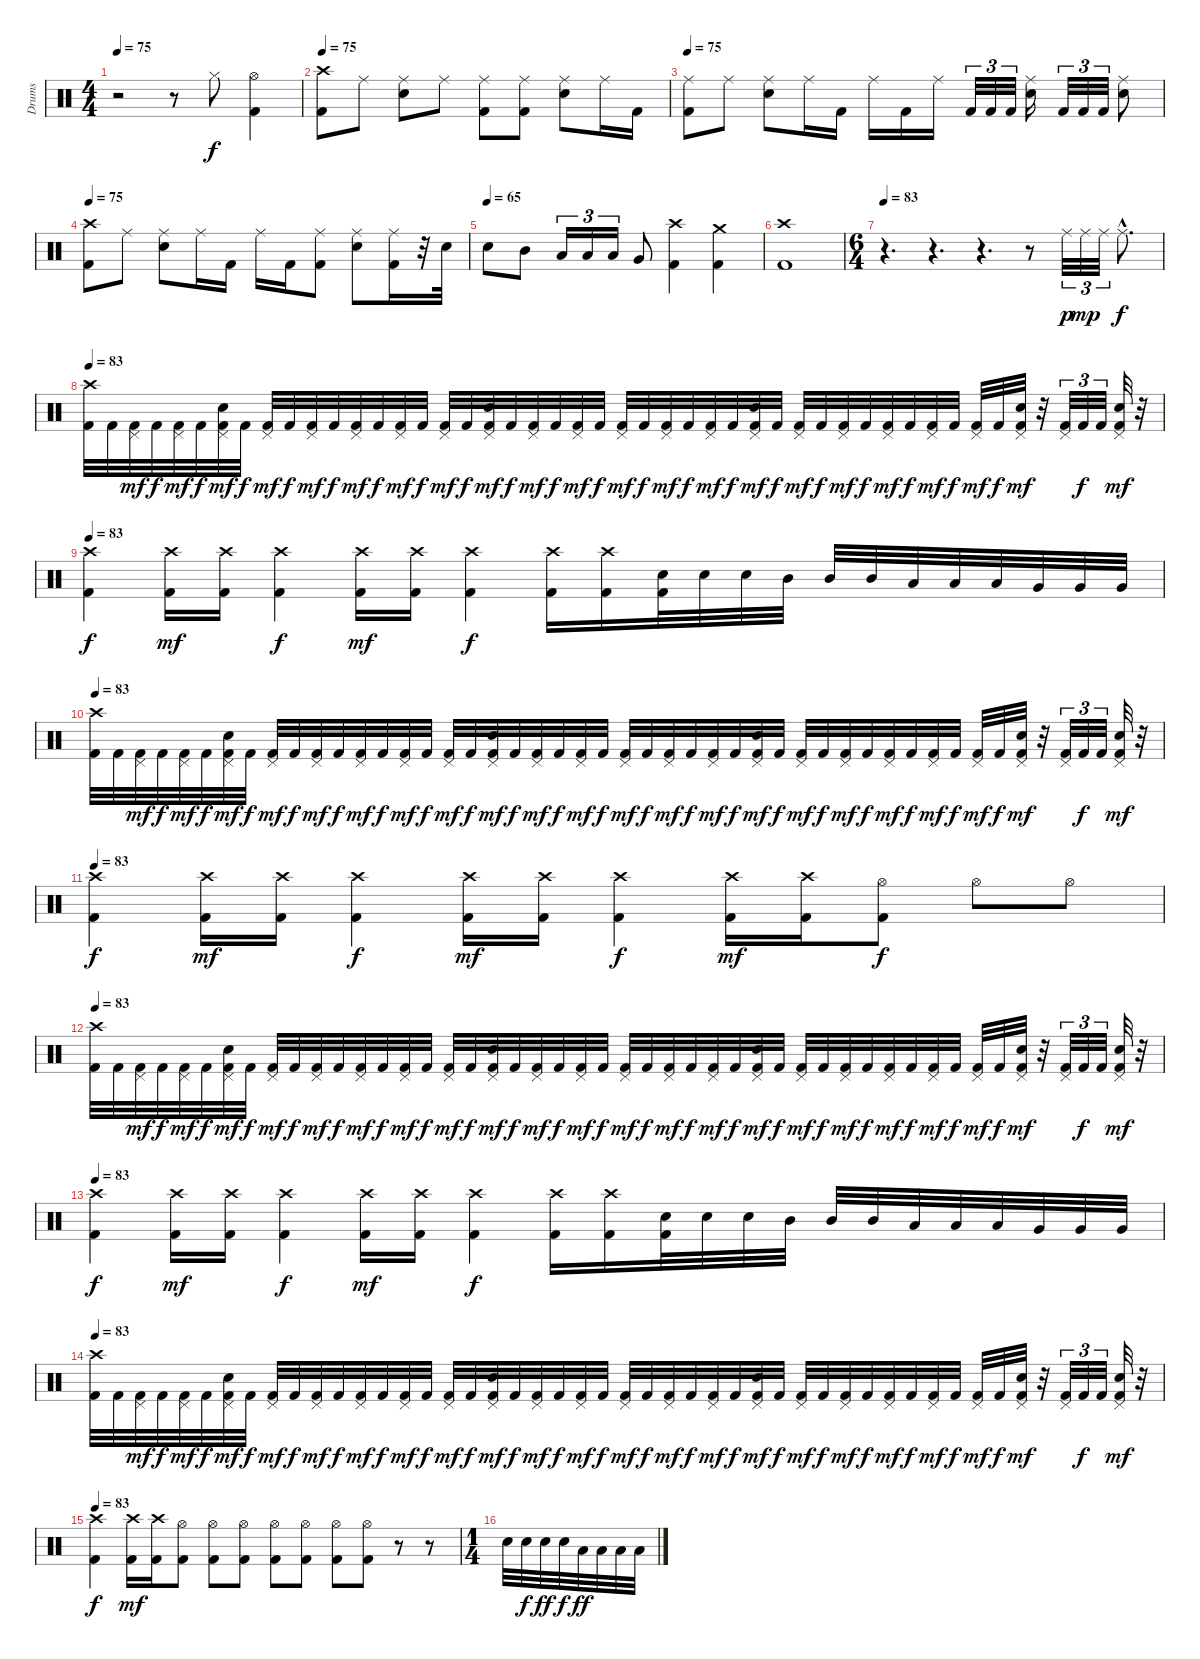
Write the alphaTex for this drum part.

\track ("Drums" "Drums") {instrument percussion}
\staff {score}
\articulation defaults
\ts (4 4)
\tempo 75
\clef neutral
\ks c
r.2{dy f} r.8 "Hi-Hat (closed)".8 ("Hi-Hat (open)" "Kick (hit) 2").4 |
\tempo 75
("Crash high (hit)" "Kick (hit) 2").8 "Ride (middle)".8 ("Ride (middle)" "Electric Snare (hit)").8 "Ride (middle)".8 ("Ride (middle)" "Kick (hit) 2").8 ("Ride (middle)" "Kick (hit) 2").8 ("Ride (middle)" "Electric Snare (hit)").8 "Ride (middle)".16 "Kick (hit) 2".16 |
\tempo 75
("Ride (middle)" "Kick (hit) 2").8 "Ride (middle)".8 ("Ride (middle)" "Electric Snare (hit)").8 "Ride (middle)".16 "Kick (hit) 2".16 "Ride (middle)".16 "Kick (hit) 2".16 "Ride (middle)".16 "Kick (hit) 2".32{tu (3 2)} "Kick (hit) 2".32{tu (3 2)} "Kick (hit) 2".32{tu (3 2)} ("Ride (middle)" "Electric Snare (hit)").16 "Kick (hit) 2".32{tu (3 2)} "Kick (hit) 2".32{tu (3 2)} "Kick (hit) 2".32{tu (3 2)} ("Ride (middle)" "Electric Snare (hit)").8 |
\tempo 75
("Crash high (hit)" "Kick (hit) 2").8 "Ride (middle)".8 ("Ride (middle)" "Electric Snare (hit)").8 "Ride (middle)".16 "Kick (hit) 2".16 "Ride (middle)".16 "Kick (hit) 2".16 ("Ride (middle)" "Kick (hit) 2").8 ("Ride (middle)" "Electric Snare (hit)").8 ("Ride (middle)" "Kick (hit) 2").16 r.32 "Electric Snare (hit)".32 |
\tempo (65)
"Electric Snare (hit)".8 "Mid Tom (hit)".8 "Low Tom (hit)".16{tu (3 2)} "Low Tom (hit)".16{tu (3 2)} "Low Tom (hit)".16{tu (3 2)} "Very Low Tom (hit)".8 ("Crash high (hit)" "Kick (hit) 2").4 ("Crash medium (hit)" "Kick (hit) 2").4 |
("Crash high (hit)" "Kick (hit) 2").1 |
\ts (6 4)
\tempo 83
r.4{d} r.4{d} r.4{d} r.8 "Ride (middle)".32{tu (3 2) dy p} "Ride (middle)".32{tu (3 2) dy mp} "Ride (middle)".32{tu (3 2)} "Ride (middle)"{hac}.8{d dy f} |
\tempo 83
("Crash high (hit)" "Kick (hit) 2").32 "Kick (hit) 2".32 ("Pedal Hi-Hat (hit)" "Kick (hit) 2").32{dy mf} "Kick (hit) 2".32{dy f} ("Pedal Hi-Hat (hit)" "Kick (hit) 2").32{dy mf} "Kick (hit) 2".32{dy f} ("Pedal Hi-Hat (hit)" "Electric Snare (hit)" "Kick (hit) 2").32{dy mf} "Kick (hit) 2".32{dy f} ("Pedal Hi-Hat (hit)" "Kick (hit) 2").32{dy mf} "Kick (hit) 2".32{dy f} ("Pedal Hi-Hat (hit)" "Kick (hit) 2").32{dy mf} "Kick (hit) 2".32{dy f} ("Pedal Hi-Hat (hit)" "Kick (hit) 2").32{dy mf} "Kick (hit) 2".32{dy f} ("Pedal Hi-Hat (hit)" "Kick (hit) 2").32{dy mf} "Kick (hit) 2".32{dy f} ("Pedal Hi-Hat (hit)" "Kick (hit) 2").32{dy mf} "Kick (hit) 2".32{dy f} ("Pedal Hi-Hat (hit)" "Electric Snare (hit)" "Kick (hit) 2").32{dy mf} "Kick (hit) 2".32{dy f} ("Pedal Hi-Hat (hit)" "Kick (hit) 2").32{dy mf} "Kick (hit) 2".32{dy f} ("Pedal Hi-Hat (hit)" "Kick (hit) 2").32{dy mf} "Kick (hit) 2".32{dy f} ("Pedal Hi-Hat (hit)" "Kick (hit) 2").32{dy mf} "Kick (hit) 2".32{dy f} ("Pedal Hi-Hat (hit)" "Kick (hit) 2").32{dy mf} "Kick (hit) 2".32{dy f} ("Pedal Hi-Hat (hit)" "Kick (hit) 2").32{dy mf} "Kick (hit) 2".32{dy f} ("Pedal Hi-Hat (hit)" "Electric Snare (hit)" "Kick (hit) 2").32{dy mf} "Kick (hit) 2".32{dy f} ("Pedal Hi-Hat (hit)" "Kick (hit) 2").32{dy mf} "Kick (hit) 2".32{dy f} ("Pedal Hi-Hat (hit)" "Kick (hit) 2").32{dy mf} "Kick (hit) 2".32{dy f} ("Pedal Hi-Hat (hit)" "Kick (hit) 2").32{dy mf} "Kick (hit) 2".32{dy f} ("Pedal Hi-Hat (hit)" "Kick (hit) 2").32{dy mf} "Kick (hit) 2".32{dy f} ("Pedal Hi-Hat (hit)" "Kick (hit) 2").32{dy mf} "Kick (hit) 2".32{dy f} ("Pedal Hi-Hat (hit)" "Electric Snare (hit)" "Kick (hit) 2").32{dy mf} r.32 ("Pedal Hi-Hat (hit)" "Kick (hit) 2").32{tu (3 2)} "Kick (hit) 2".32{tu (3 2) dy f} "Kick (hit) 2".32{tu (3 2)} ("Pedal Hi-Hat (hit)" "Electric Snare (hit)" "Kick (hit) 2").32{dy mf} r.32 |
\tempo 83
("Crash high (hit)" "Kick (hit) 2").4{dy f} ("Crash high (hit)" "Kick (hit) 2").16{dy mf} ("Crash high (hit)" "Kick (hit) 2").16 ("Crash high (hit)" "Kick (hit) 2").4{dy f} ("Crash high (hit)" "Kick (hit) 2").16{dy mf} ("Crash high (hit)" "Kick (hit) 2").16 ("Crash high (hit)" "Kick (hit) 2").4{dy f} ("Crash high (hit)" "Kick (hit) 2").16 ("Crash high (hit)" "Kick (hit) 2").16 ("Snare (hit) 2" "Kick (hit) 2").32 "Snare (hit) 2".32 "Snare (hit) 2".32 "Mid Tom (hit)".32 "Mid Tom (hit)".32 "Mid Tom (hit)".32 "Low Tom (hit)".32 "Low Tom (hit)".32 "Low Tom (hit)".32 "Very Low Tom (hit)".32 "Very Low Tom (hit)".32 "Very Low Tom (hit)".32 |
\tempo 83
("Crash high (hit)" "Kick (hit) 2").32 "Kick (hit) 2".32 ("Pedal Hi-Hat (hit)" "Kick (hit) 2").32{dy mf} "Kick (hit) 2".32{dy f} ("Pedal Hi-Hat (hit)" "Kick (hit) 2").32{dy mf} "Kick (hit) 2".32{dy f} ("Pedal Hi-Hat (hit)" "Electric Snare (hit)" "Kick (hit) 2").32{dy mf} "Kick (hit) 2".32{dy f} ("Pedal Hi-Hat (hit)" "Kick (hit) 2").32{dy mf} "Kick (hit) 2".32{dy f} ("Pedal Hi-Hat (hit)" "Kick (hit) 2").32{dy mf} "Kick (hit) 2".32{dy f} ("Pedal Hi-Hat (hit)" "Kick (hit) 2").32{dy mf} "Kick (hit) 2".32{dy f} ("Pedal Hi-Hat (hit)" "Kick (hit) 2").32{dy mf} "Kick (hit) 2".32{dy f} ("Pedal Hi-Hat (hit)" "Kick (hit) 2").32{dy mf} "Kick (hit) 2".32{dy f} ("Pedal Hi-Hat (hit)" "Electric Snare (hit)" "Kick (hit) 2").32{dy mf} "Kick (hit) 2".32{dy f} ("Pedal Hi-Hat (hit)" "Kick (hit) 2").32{dy mf} "Kick (hit) 2".32{dy f} ("Pedal Hi-Hat (hit)" "Kick (hit) 2").32{dy mf} "Kick (hit) 2".32{dy f} ("Pedal Hi-Hat (hit)" "Kick (hit) 2").32{dy mf} "Kick (hit) 2".32{dy f} ("Pedal Hi-Hat (hit)" "Kick (hit) 2").32{dy mf} "Kick (hit) 2".32{dy f} ("Pedal Hi-Hat (hit)" "Kick (hit) 2").32{dy mf} "Kick (hit) 2".32{dy f} ("Pedal Hi-Hat (hit)" "Electric Snare (hit)" "Kick (hit) 2").32{dy mf} "Kick (hit) 2".32{dy f} ("Pedal Hi-Hat (hit)" "Kick (hit) 2").32{dy mf} "Kick (hit) 2".32{dy f} ("Pedal Hi-Hat (hit)" "Kick (hit) 2").32{dy mf} "Kick (hit) 2".32{dy f} ("Pedal Hi-Hat (hit)" "Kick (hit) 2").32{dy mf} "Kick (hit) 2".32{dy f} ("Pedal Hi-Hat (hit)" "Kick (hit) 2").32{dy mf} "Kick (hit) 2".32{dy f} ("Pedal Hi-Hat (hit)" "Kick (hit) 2").32{dy mf} "Kick (hit) 2".32{dy f} ("Pedal Hi-Hat (hit)" "Electric Snare (hit)" "Kick (hit) 2").32{dy mf} r.32 ("Pedal Hi-Hat (hit)" "Kick (hit) 2").32{tu (3 2)} "Kick (hit) 2".32{tu (3 2) dy f} "Kick (hit) 2".32{tu (3 2)} ("Pedal Hi-Hat (hit)" "Electric Snare (hit)" "Kick (hit) 2").32{dy mf} r.32 |
\tempo 83
("Crash high (hit)" "Kick (hit) 2").4{dy f} ("Crash high (hit)" "Kick (hit) 2").16{dy mf} ("Crash high (hit)" "Kick (hit) 2").16 ("Crash high (hit)" "Kick (hit) 2").4{dy f} ("Crash high (hit)" "Kick (hit) 2").16{dy mf} ("Crash high (hit)" "Kick (hit) 2").16 ("Crash high (hit)" "Kick (hit) 2").4{dy f} ("Crash high (hit)" "Kick (hit) 2").16{dy mf} ("Crash high (hit)" "Kick (hit) 2").16 ("Hi-Hat (open)" "Kick (hit) 2").8{dy f} "Hi-Hat (open)".8 "Hi-Hat (open)".8 |
\tempo 83
("Crash high (hit)" "Kick (hit) 2").32 "Kick (hit) 2".32 ("Pedal Hi-Hat (hit)" "Kick (hit) 2").32{dy mf} "Kick (hit) 2".32{dy f} ("Pedal Hi-Hat (hit)" "Kick (hit) 2").32{dy mf} "Kick (hit) 2".32{dy f} ("Pedal Hi-Hat (hit)" "Electric Snare (hit)" "Kick (hit) 2").32{dy mf} "Kick (hit) 2".32{dy f} ("Pedal Hi-Hat (hit)" "Kick (hit) 2").32{dy mf} "Kick (hit) 2".32{dy f} ("Pedal Hi-Hat (hit)" "Kick (hit) 2").32{dy mf} "Kick (hit) 2".32{dy f} ("Pedal Hi-Hat (hit)" "Kick (hit) 2").32{dy mf} "Kick (hit) 2".32{dy f} ("Pedal Hi-Hat (hit)" "Kick (hit) 2").32{dy mf} "Kick (hit) 2".32{dy f} ("Pedal Hi-Hat (hit)" "Kick (hit) 2").32{dy mf} "Kick (hit) 2".32{dy f} ("Pedal Hi-Hat (hit)" "Electric Snare (hit)" "Kick (hit) 2").32{dy mf} "Kick (hit) 2".32{dy f} ("Pedal Hi-Hat (hit)" "Kick (hit) 2").32{dy mf} "Kick (hit) 2".32{dy f} ("Pedal Hi-Hat (hit)" "Kick (hit) 2").32{dy mf} "Kick (hit) 2".32{dy f} ("Pedal Hi-Hat (hit)" "Kick (hit) 2").32{dy mf} "Kick (hit) 2".32{dy f} ("Pedal Hi-Hat (hit)" "Kick (hit) 2").32{dy mf} "Kick (hit) 2".32{dy f} ("Pedal Hi-Hat (hit)" "Kick (hit) 2").32{dy mf} "Kick (hit) 2".32{dy f} ("Pedal Hi-Hat (hit)" "Electric Snare (hit)" "Kick (hit) 2").32{dy mf} "Kick (hit) 2".32{dy f} ("Pedal Hi-Hat (hit)" "Kick (hit) 2").32{dy mf} "Kick (hit) 2".32{dy f} ("Pedal Hi-Hat (hit)" "Kick (hit) 2").32{dy mf} "Kick (hit) 2".32{dy f} ("Pedal Hi-Hat (hit)" "Kick (hit) 2").32{dy mf} "Kick (hit) 2".32{dy f} ("Pedal Hi-Hat (hit)" "Kick (hit) 2").32{dy mf} "Kick (hit) 2".32{dy f} ("Pedal Hi-Hat (hit)" "Kick (hit) 2").32{dy mf} "Kick (hit) 2".32{dy f} ("Pedal Hi-Hat (hit)" "Electric Snare (hit)" "Kick (hit) 2").32{dy mf} r.32 ("Pedal Hi-Hat (hit)" "Kick (hit) 2").32{tu (3 2)} "Kick (hit) 2".32{tu (3 2) dy f} "Kick (hit) 2".32{tu (3 2)} ("Pedal Hi-Hat (hit)" "Electric Snare (hit)" "Kick (hit) 2").32{dy mf} r.32 |
\tempo 83
("Crash high (hit)" "Kick (hit) 2").4{dy f} ("Crash high (hit)" "Kick (hit) 2").16{dy mf} ("Crash high (hit)" "Kick (hit) 2").16 ("Crash high (hit)" "Kick (hit) 2").4{dy f} ("Crash high (hit)" "Kick (hit) 2").16{dy mf} ("Crash high (hit)" "Kick (hit) 2").16 ("Crash high (hit)" "Kick (hit) 2").4{dy f} ("Crash high (hit)" "Kick (hit) 2").16 ("Crash high (hit)" "Kick (hit) 2").16 ("Snare (hit) 2" "Kick (hit) 2").32 "Snare (hit) 2".32 "Snare (hit) 2".32 "Mid Tom (hit)".32 "Mid Tom (hit)".32 "Mid Tom (hit)".32 "Low Tom (hit)".32 "Low Tom (hit)".32 "Low Tom (hit)".32 "Very Low Tom (hit)".32 "Very Low Tom (hit)".32 "Very Low Tom (hit)".32 |
\tempo 83
("Crash high (hit)" "Kick (hit) 2").32 "Kick (hit) 2".32 ("Pedal Hi-Hat (hit)" "Kick (hit) 2").32{dy mf} "Kick (hit) 2".32{dy f} ("Pedal Hi-Hat (hit)" "Kick (hit) 2").32{dy mf} "Kick (hit) 2".32{dy f} ("Pedal Hi-Hat (hit)" "Electric Snare (hit)" "Kick (hit) 2").32{dy mf} "Kick (hit) 2".32{dy f} ("Pedal Hi-Hat (hit)" "Kick (hit) 2").32{dy mf} "Kick (hit) 2".32{dy f} ("Pedal Hi-Hat (hit)" "Kick (hit) 2").32{dy mf} "Kick (hit) 2".32{dy f} ("Pedal Hi-Hat (hit)" "Kick (hit) 2").32{dy mf} "Kick (hit) 2".32{dy f} ("Pedal Hi-Hat (hit)" "Kick (hit) 2").32{dy mf} "Kick (hit) 2".32{dy f} ("Pedal Hi-Hat (hit)" "Kick (hit) 2").32{dy mf} "Kick (hit) 2".32{dy f} ("Pedal Hi-Hat (hit)" "Electric Snare (hit)" "Kick (hit) 2").32{dy mf} "Kick (hit) 2".32{dy f} ("Pedal Hi-Hat (hit)" "Kick (hit) 2").32{dy mf} "Kick (hit) 2".32{dy f} ("Pedal Hi-Hat (hit)" "Kick (hit) 2").32{dy mf} "Kick (hit) 2".32{dy f} ("Pedal Hi-Hat (hit)" "Kick (hit) 2").32{dy mf} "Kick (hit) 2".32{dy f} ("Pedal Hi-Hat (hit)" "Kick (hit) 2").32{dy mf} "Kick (hit) 2".32{dy f} ("Pedal Hi-Hat (hit)" "Kick (hit) 2").32{dy mf} "Kick (hit) 2".32{dy f} ("Pedal Hi-Hat (hit)" "Electric Snare (hit)" "Kick (hit) 2").32{dy mf} "Kick (hit) 2".32{dy f} ("Pedal Hi-Hat (hit)" "Kick (hit) 2").32{dy mf} "Kick (hit) 2".32{dy f} ("Pedal Hi-Hat (hit)" "Kick (hit) 2").32{dy mf} "Kick (hit) 2".32{dy f} ("Pedal Hi-Hat (hit)" "Kick (hit) 2").32{dy mf} "Kick (hit) 2".32{dy f} ("Pedal Hi-Hat (hit)" "Kick (hit) 2").32{dy mf} "Kick (hit) 2".32{dy f} ("Pedal Hi-Hat (hit)" "Kick (hit) 2").32{dy mf} "Kick (hit) 2".32{dy f} ("Pedal Hi-Hat (hit)" "Electric Snare (hit)" "Kick (hit) 2").32{dy mf} r.32 ("Pedal Hi-Hat (hit)" "Kick (hit) 2").32{tu (3 2)} "Kick (hit) 2".32{tu (3 2) dy f} "Kick (hit) 2".32{tu (3 2)} ("Pedal Hi-Hat (hit)" "Electric Snare (hit)" "Kick (hit) 2").32{dy mf} r.32 |
\tempo 83
("Crash high (hit)" "Kick (hit) 2").4{dy f} ("Crash high (hit)" "Kick (hit) 2").16{dy mf} ("Crash high (hit)" "Kick (hit) 2").16 ("Hi-Hat (open)" "Kick (hit) 2").8 ("Hi-Hat (open)" "Kick (hit) 2").8 ("Hi-Hat (open)" "Kick (hit) 2").8 ("Hi-Hat (open)" "Kick (hit) 2").8 ("Hi-Hat (open)" "Kick (hit) 2").8 ("Hi-Hat (open)" "Kick (hit) 2").8 ("Hi-Hat (open)" "Kick (hit) 2").8 r.8 r.8 |
\ts (1 4)
"Snare (hit) 2".32 "Snare (hit) 2".32{dy f} "Snare (hit) 2".32{dy ff} "Snare (hit) 2".32{dy f} "Low Tom (hit)".32{dy ff} "Low Tom (hit)".32 "Low Tom (hit)".32 "Low Tom (hit)".32
